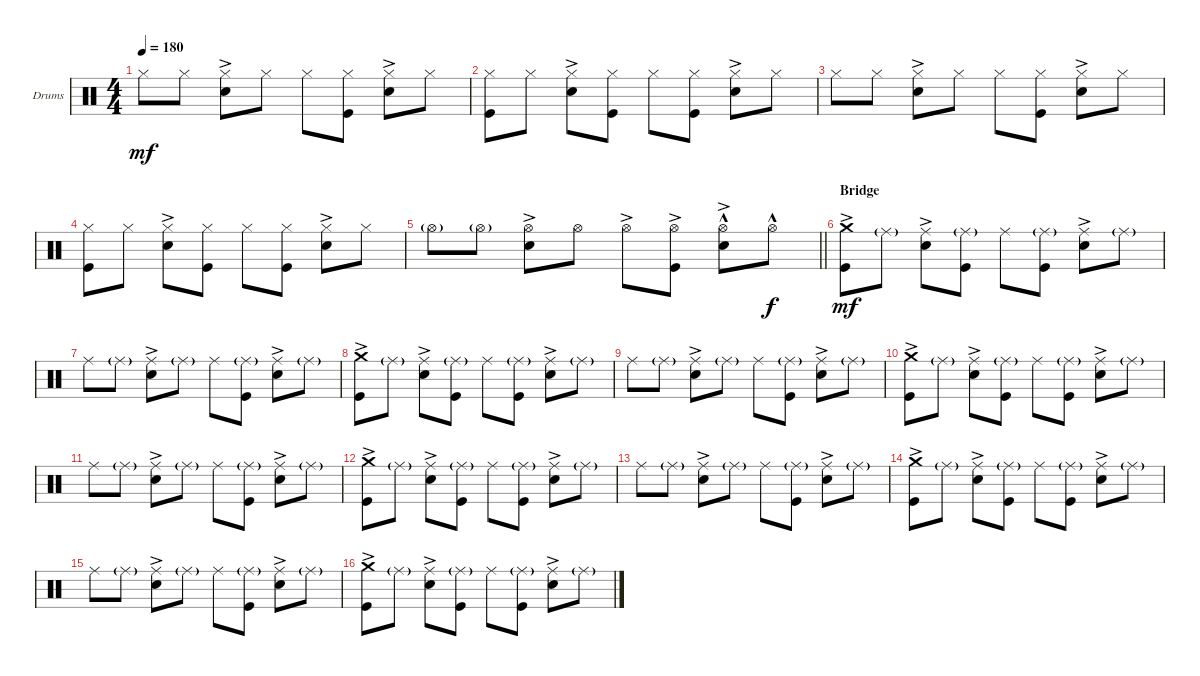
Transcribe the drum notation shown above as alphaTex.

\defaultSystemsLayout 4
\bracketExtendMode groupsimilarinstruments
\firstSystemTrackNameOrientation horizontal
\otherSystemsTrackNameOrientation horizontal
\track ("Will - Drumkit" "Drums") {instrument percussion}
\staff {score}
\articulation defaults
\ts (4 4)
\tempo 180
\clef neutral
\ks c "Hi-Hat (closed)".8{dy mf} "Hi-Hat (closed)".8
("Hi-Hat (closed)" "Snare (hit) 2"{ac}).8 "Hi-Hat (closed)".8 "Hi-Hat (closed)".8 ("Hi-Hat (closed)" "Kick (hit)").8 ("Hi-Hat (closed)" "Snare (hit) 2"{ac}).8 "Hi-Hat (closed)".8 |
("Kick (hit)" "Hi-Hat (closed)").8 "Hi-Hat (closed)".8 ("Hi-Hat (closed)" "Snare (hit) 2"{ac}).8 ("Hi-Hat (closed)" "Kick (hit)").8 "Hi-Hat (closed)".8 ("Hi-Hat (closed)" "Kick (hit)").8 ("Hi-Hat (closed)" "Snare (hit) 2"{ac}).8 "Hi-Hat (closed)".8 |
"Hi-Hat (closed)".8 "Hi-Hat (closed)".8 ("Hi-Hat (closed)" "Snare (hit) 2"{ac}).8 "Hi-Hat (closed)".8 "Hi-Hat (closed)".8 ("Hi-Hat (closed)" "Kick (hit)").8 ("Hi-Hat (closed)" "Snare (hit) 2"{ac}).8 "Hi-Hat (closed)".8 |
("Kick (hit)" "Hi-Hat (closed)").8 "Hi-Hat (closed)".8 ("Hi-Hat (closed)" "Snare (hit) 2"{ac}).8 ("Hi-Hat (closed)" "Kick (hit)").8 "Hi-Hat (closed)".8 ("Hi-Hat (closed)" "Kick (hit)").8 ("Hi-Hat (closed)" "Snare (hit) 2"{ac}).8 "Hi-Hat (closed)".8 |
\barLineRight lightlight "Hi-Hat (open)"{g}.8 "Hi-Hat (open)"{g}.8
("Hi-Hat (open)" "Snare (hit) 2"{ac}).8 "Hi-Hat (open)".8 "Hi-Hat (open)"{ac}.8 ("Hi-Hat (open)"{ac} "Kick (hit)").8 ("Hi-Hat (open)"{hac} "Snare (hit) 2"{ac}).8 "Hi-Hat (open)"{hac}.8{dy f} |
\section ("" "Bridge")
("Crash medium (hit)"{ac} "Kick (hit)").8{dy mf} "Ride (middle)"{g}.8 ("Ride (middle)" "Snare (hit) 2"{ac}).8 ("Ride (middle)"{g} "Kick (hit)").8 "Ride (middle)".8 ("Ride (middle)"{g} "Kick (hit)").8 ("Ride (middle)" "Snare (hit) 2"{ac}).8 "Ride (middle)"{g}.8 |
"Ride (middle)".8 "Ride (middle)"{g}.8 ("Ride (middle)" "Snare (hit) 2"{ac}).8 "Ride (middle)"{g}.8 "Ride (middle)".8 ("Ride (middle)"{g} "Kick (hit)").8 ("Ride (middle)" "Snare (hit) 2"{ac}).8 "Ride (middle)"{g}.8 |
("Crash medium (hit)"{ac} "Kick (hit)").8 "Ride (middle)"{g}.8 ("Ride (middle)" "Snare (hit) 2"{ac}).8 ("Ride (middle)"{g} "Kick (hit)").8 "Ride (middle)".8 ("Ride (middle)"{g} "Kick (hit)").8 ("Ride (middle)" "Snare (hit) 2"{ac}).8 "Ride (middle)"{g}.8 |
"Ride (middle)".8 "Ride (middle)"{g}.8 ("Ride (middle)" "Snare (hit) 2"{ac}).8 "Ride (middle)"{g}.8 "Ride (middle)".8 ("Ride (middle)"{g} "Kick (hit)").8 ("Ride (middle)" "Snare (hit) 2"{ac}).8 "Ride (middle)"{g}.8 |
("Crash medium (hit)"{ac} "Kick (hit)").8 "Ride (middle)"{g}.8 ("Ride (middle)" "Snare (hit) 2"{ac}).8 ("Ride (middle)"{g} "Kick (hit)").8 "Ride (middle)".8 ("Ride (middle)"{g} "Kick (hit)").8 ("Ride (middle)" "Snare (hit) 2"{ac}).8 "Ride (middle)"{g}.8 |
"Ride (middle)".8 "Ride (middle)"{g}.8 ("Ride (middle)" "Snare (hit) 2"{ac}).8 "Ride (middle)"{g}.8 "Ride (middle)".8 ("Ride (middle)"{g} "Kick (hit)").8 ("Ride (middle)" "Snare (hit) 2"{ac}).8 "Ride (middle)"{g}.8 |
("Crash medium (hit)"{ac} "Kick (hit)").8 "Ride (middle)"{g}.8 ("Ride (middle)" "Snare (hit) 2"{ac}).8 ("Ride (middle)"{g} "Kick (hit)").8 "Ride (middle)".8 ("Ride (middle)"{g} "Kick (hit)").8 ("Ride (middle)" "Snare (hit) 2"{ac}).8 "Ride (middle)"{g}.8 |
"Ride (middle)".8 "Ride (middle)"{g}.8 ("Ride (middle)" "Snare (hit) 2"{ac}).8 "Ride (middle)"{g}.8 "Ride (middle)".8 ("Ride (middle)"{g} "Kick (hit)").8 ("Ride (middle)" "Snare (hit) 2"{ac}).8 "Ride (middle)"{g}.8 |
("Crash medium (hit)"{ac} "Kick (hit)").8 "Ride (middle)"{g}.8 ("Ride (middle)" "Snare (hit) 2"{ac}).8 ("Ride (middle)"{g} "Kick (hit)").8 "Ride (middle)".8 ("Ride (middle)"{g} "Kick (hit)").8 ("Ride (middle)" "Snare (hit) 2"{ac}).8 "Ride (middle)"{g}.8 |
"Ride (middle)".8 "Ride (middle)"{g}.8 ("Ride (middle)" "Snare (hit) 2"{ac}).8 "Ride (middle)"{g}.8 "Ride (middle)".8 ("Ride (middle)"{g} "Kick (hit)").8 ("Ride (middle)" "Snare (hit) 2"{ac}).8 "Ride (middle)"{g}.8 |
("Crash medium (hit)"{ac} "Kick (hit)").8 "Ride (middle)"{g}.8 ("Ride (middle)" "Snare (hit) 2"{ac}).8 ("Ride (middle)"{g} "Kick (hit)").8 "Ride (middle)".8 ("Ride (middle)"{g} "Kick (hit)").8 ("Ride (middle)" "Snare (hit) 2"{ac}).8 "Ride (middle)"{g}.8
